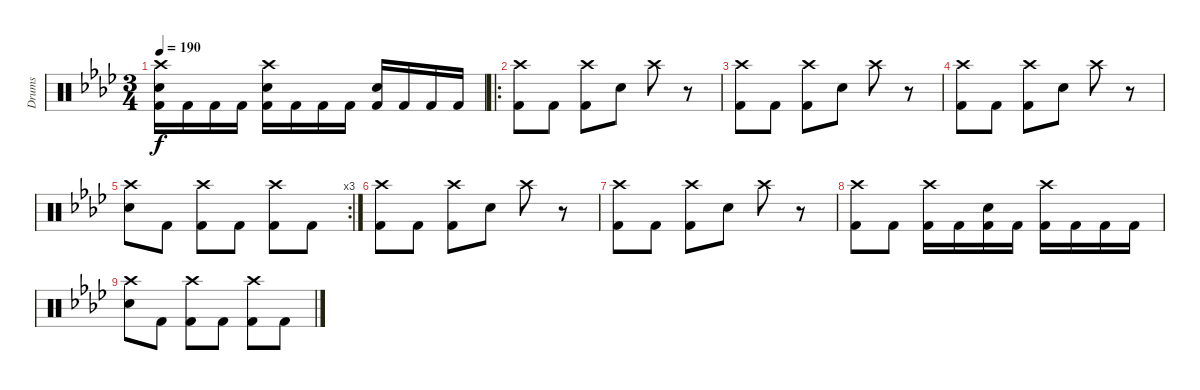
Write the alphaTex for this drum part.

\track ("Drums" "Drums") {instrument percussion}
\staff {score}
\articulation defaults
\ts (3 4)
\tempo 190
\clef neutral
\ks ab
("Crash high (hit)" "Snare (hit) 2" "Kick (hit) 2").16{dy f} "Kick (hit) 2".16 "Kick (hit) 2".16 "Kick (hit) 2".16 ("Crash high (hit)" "Snare (hit) 2" "Kick (hit) 2").16 "Kick (hit) 2".16 "Kick (hit) 2".16 "Kick (hit) 2".16 ("Snare (hit) 2" "Kick (hit) 2").16 "Kick (hit) 2".16 "Kick (hit) 2".16 "Kick (hit) 2".16 |
\ro
("Crash high (hit)" "Kick (hit) 2").8 "Kick (hit) 2".8 ("Crash high (hit)" "Kick (hit) 2").8 "Snare (hit) 2".8 "Crash high (hit)".8 r.8 |
("Crash high (hit)" "Kick (hit) 2").8 "Kick (hit) 2".8 ("Crash high (hit)" "Kick (hit) 2").8 "Snare (hit) 2".8 "Crash high (hit)".8 r.8 |
("Crash high (hit)" "Kick (hit) 2").8 "Kick (hit) 2".8 ("Crash high (hit)" "Kick (hit) 2").8 "Snare (hit) 2".8 "Crash high (hit)".8 r.8 |
\rc 3
("Crash high (hit)" "Snare (hit) 2").8 "Kick (hit) 2".8 ("Crash high (hit)" "Kick (hit) 2").8 "Kick (hit) 2".8 ("Crash high (hit)" "Kick (hit) 2").8 "Kick (hit) 2".8 |
("Crash high (hit)" "Kick (hit) 2").8 "Kick (hit) 2".8 ("Crash high (hit)" "Kick (hit) 2").8 "Snare (hit) 2".8 "Crash high (hit)".8 r.8 |
("Crash high (hit)" "Kick (hit) 2").8 "Kick (hit) 2".8 ("Crash high (hit)" "Kick (hit) 2").8 "Snare (hit) 2".8 "Crash high (hit)".8 r.8 |
("Crash high (hit)" "Kick (hit) 2").8 "Kick (hit) 2".8 ("Crash high (hit)" "Kick (hit) 2").16 "Kick (hit) 2".16 ("Snare (hit) 2" "Kick (hit) 2").16 "Kick (hit) 2".16 ("Crash high (hit)" "Kick (hit) 2").16 "Kick (hit) 2".16 "Kick (hit) 2".16 "Kick (hit) 2".16 |
("Crash high (hit)" "Snare (hit) 2").8 "Kick (hit) 2".8 ("Crash high (hit)" "Kick (hit) 2").8 "Kick (hit) 2".8 ("Crash high (hit)" "Kick (hit) 2").8 "Kick (hit) 2".8
